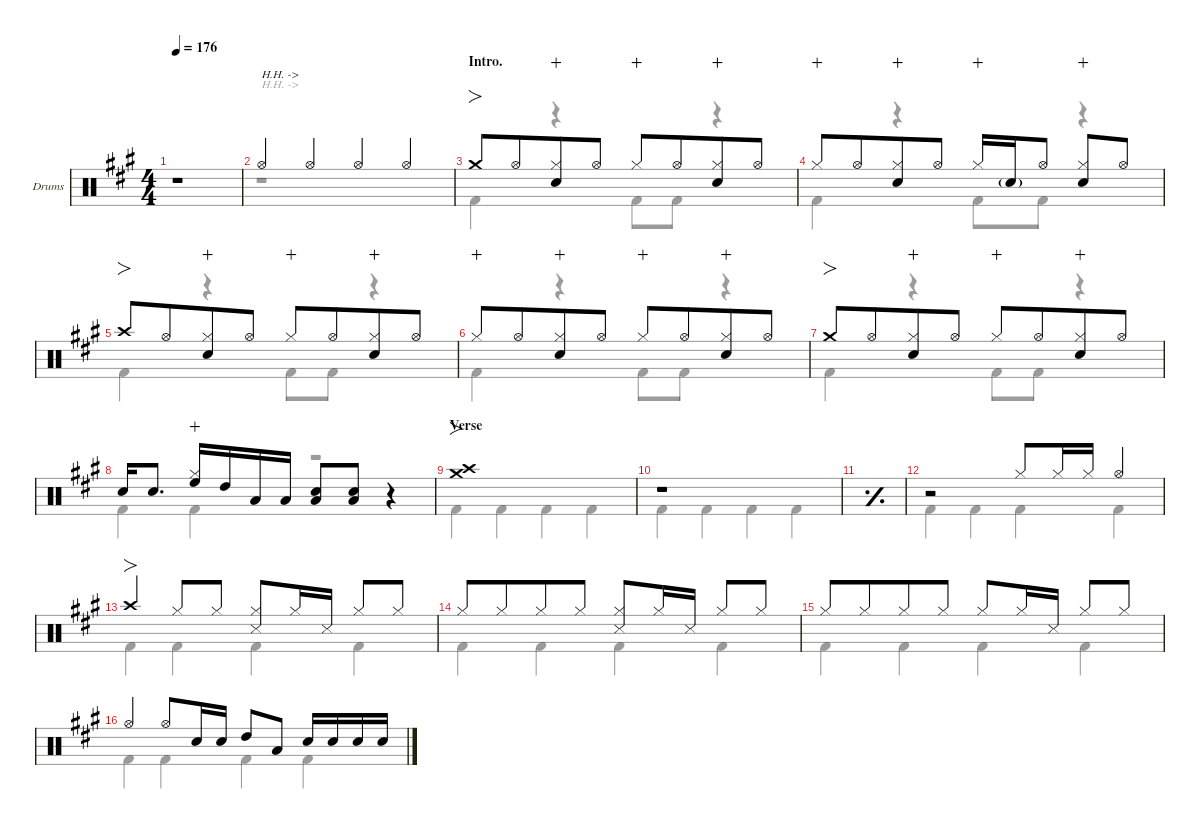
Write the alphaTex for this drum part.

\defaultSystemsLayout 4
\hideDynamics
\bracketExtendMode nobrackets
\firstSystemTrackNameOrientation horizontal
\track ("Drums" "Drums") {defaultSystemsLayout 4 instrument percussion}
\staff {score}
\articulation defaults
\voice
\ts (4 4)
\beaming (8 4 4)
\tempo 176
\clef neutral
\ks a
r.1{dy f beam Up} |
"Hi-Hat (open)"{acc forcenatural}.4{txt "H.H. ->" beam Up} "Hi-Hat (open)"{acc forcenatural}.4{beam Up} "Hi-Hat (open)"{acc forcenatural}.4{beam Up} "Hi-Hat (open)"{acc forcenatural}.4{beam Up} |
\section ("" "Intro.")
"Crash medium (hit)"{acc forcenatural}.8{fo beam Up} "Hi-Hat (open)"{acc forcenatural}.8{beam Up} ("Hi-Hat (closed)"{acc forcenatural} "Snare (hit) 2"{acc forcenatural}).8{wahc beam Up} "Hi-Hat (open)"{acc forcenatural}.8{beam Up} "Hi-Hat (closed)"{acc forcenatural}.8{dy mp wahc beam Up} "Hi-Hat (open)"{acc forcenatural}.8{dy f beam Up} ("Hi-Hat (closed)"{acc forcenatural} "Snare (hit) 2"{acc forcenatural}).8{wahc beam Up} "Hi-Hat (open)"{acc forcenatural}.8{beam Up} |
"Hi-Hat (closed)"{acc forcenatural}.8{dy mp wahc beam Up} "Hi-Hat (open)"{acc forcenatural}.8{dy f beam Up} ("Hi-Hat (closed)"{acc forcenatural} "Snare (hit) 2"{acc forcenatural}).8{wahc beam Up} "Hi-Hat (open)"{acc forcenatural}.8{beam Up} "Hi-Hat (closed)"{acc forcenatural}.16{dy mp wahc beam Up} "Snare (hit) 2"{g acc forcenatural}.16{dy mf beam Up} "Hi-Hat (open)"{acc forcenatural}.8{dy f beam Up beam split} ("Hi-Hat (closed)"{acc forcenatural} "Snare (hit) 2"{acc forcenatural}).8{wahc beam Up} "Hi-Hat (open)"{acc forcenatural}.8{beam Up} |
"Crash high (hit)"{acc forcenatural}.8{fo beam Up} "Hi-Hat (open)"{acc forcenatural}.8{beam Up} ("Hi-Hat (closed)"{acc forcenatural} "Snare (hit) 2"{acc forcenatural}).8{wahc beam Up} "Hi-Hat (open)"{acc forcenatural}.8{beam Up} "Hi-Hat (closed)"{acc forcenatural}.8{dy mp wahc beam Up} "Hi-Hat (open)"{acc forcenatural}.8{dy f beam Up} ("Hi-Hat (closed)"{acc forcenatural} "Snare (hit) 2"{acc forcenatural}).8{wahc beam Up} "Hi-Hat (open)"{acc forcenatural}.8{beam Up} |
"Hi-Hat (closed)"{acc forcenatural}.8{dy mp wahc beam Up} "Hi-Hat (open)"{acc forcenatural}.8{dy f beam Up} ("Hi-Hat (closed)"{acc forcenatural} "Snare (hit) 2"{acc forcenatural}).8{wahc beam Up} "Hi-Hat (open)"{acc forcenatural}.8{beam Up} "Hi-Hat (closed)"{acc forcenatural}.8{dy mp wahc beam Up} "Hi-Hat (open)"{acc forcenatural}.8{dy f beam Up} ("Hi-Hat (closed)"{acc forcenatural} "Snare (hit) 2"{acc forcenatural}).8{wahc beam Up} "Hi-Hat (open)"{acc forcenatural}.8{beam Up} |
"Crash medium (hit)"{acc forcenatural}.8{fo beam Up} "Hi-Hat (open)"{acc forcenatural}.8{beam Up} ("Hi-Hat (closed)"{acc forcenatural} "Snare (hit) 2"{acc forcenatural}).8{wahc beam Up} "Hi-Hat (open)"{acc forcenatural}.8{beam Up} "Hi-Hat (closed)"{acc forcenatural}.8{dy mp wahc beam Up} "Hi-Hat (open)"{acc forcenatural}.8{dy f beam Up} ("Hi-Hat (closed)"{acc forcenatural} "Snare (hit) 2"{acc forcenatural}).8{wahc beam Up} "Hi-Hat (open)"{acc forcenatural}.8{beam Up} |
"Snare (hit) 2"{acc forcenatural}.16{beam Up} "Snare (hit) 2"{acc forcenatural}.8{d beam Up beam split} ("Hi-Hat (closed)"{acc forcenatural} "High Floor Tom (hit)"{acc forcenatural}).16{wahc beam Up} "High Tom (hit)"{acc forcenatural}.16{beam Up} "Low Tom (hit)"{acc forcenatural}.16{beam Up} "Low Tom (hit)"{acc forcenatural}.16{beam Up} ("Snare (hit) 2"{acc forcenatural} "Low Tom (hit)"{acc forcenatural}).8{beam Up} ("Snare (hit) 2"{acc forcenatural} "Low Tom (hit)"{acc forcenatural}).8{beam Up} r.4{beam Up} |
\section ("" "Verse")
("Crash high (hit)"{acc forcenatural} "Crash medium (hit)"{acc forcenatural}).1{fo beam Up} |
r.1{beam Up} |
\simile simple
|
\simile none
r.2{beam Up} "Hi-Hat (closed)"{acc forcenatural}.8{beam Up} "Hi-Hat (closed)"{acc forcenatural}.16{dy mf beam Up} "Hi-Hat (closed)"{acc forcenatural}.16{beam Up} "Hi-Hat (open)"{acc forcenatural}.4{dy f beam Up} |
"Crash high (hit)"{acc forcenatural}.4{fo beam Up} "Hi-Hat (closed)"{acc forcenatural}.8{beam Up} "Hi-Hat (closed)"{acc forcenatural}.8{dy mf beam Up} ("Hi-Hat (closed)"{acc forcenatural} "Snare (side stick) 3"{acc forcenatural}).8{dy f beam Up} "Hi-Hat (closed)"{acc forcenatural}.16{dy mf beam Up} "Snare (side stick) 3"{acc forcenatural}.16{dy f beam Up beam split} "Hi-Hat (closed)"{acc forcenatural}.8{beam Up} "Hi-Hat (closed)"{acc forcenatural}.8{dy mf beam Up} |
"Hi-Hat (closed)"{acc forcenatural}.8{dy f beam Up} "Hi-Hat (closed)"{acc forcenatural}.8{dy mf beam Up} "Hi-Hat (closed)"{acc forcenatural}.8{dy f beam Up} "Hi-Hat (closed)"{acc forcenatural}.8{dy mf beam Up} ("Hi-Hat (closed)"{acc forcenatural} "Snare (side stick) 3"{acc forcenatural}).8{dy f beam Up} "Hi-Hat (closed)"{acc forcenatural}.16{dy mf beam Up} "Snare (side stick) 3"{acc forcenatural}.16{dy f beam Up beam split} "Hi-Hat (closed)"{acc forcenatural}.8{beam Up} "Hi-Hat (closed)"{acc forcenatural}.8{dy mf beam Up} |
"Hi-Hat (closed)"{acc forcenatural}.8{dy f beam Up} "Hi-Hat (closed)"{acc forcenatural}.8{dy mf beam Up} "Hi-Hat (closed)"{acc forcenatural}.8{dy f beam Up} "Hi-Hat (closed)"{acc forcenatural}.8{dy mf beam Up} "Hi-Hat (closed)"{acc forcenatural}.8{dy f beam Up} "Hi-Hat (closed)"{acc forcenatural}.16{dy mf beam Up} "Snare (side stick) 3"{acc forcenatural}.16{dy f beam Up beam split} "Hi-Hat (closed)"{acc forcenatural}.8{beam Up} "Hi-Hat (closed)"{acc forcenatural}.8{dy mf beam Up} |
"Hi-Hat (open)"{acc forcenatural}.4{dy f beam Up} "Hi-Hat (open)"{acc forcenatural}.8{beam Up} "Snare (hit) 2"{acc forcenatural}.16{beam Up} "Snare (hit) 2"{acc forcenatural}.16{dy mf beam Up} "High Tom (hit)"{acc forcenatural}.8{beam Up} "Low Tom (hit)"{acc forcenatural}.8{dy f beam Up beam split} "Snare (hit) 2"{acc forcenatural}.16{beam Up} "Snare (hit) 2"{acc forcenatural}.16{dy mf beam Up} "Snare (hit) 2"{acc forcenatural}.16{dy f beam Up} "Snare (hit) 2"{acc forcenatural}.16{dy mf beam Up}
\voice
\clef neutral
\ottava regular
\simile none
\ks a
r.1{dy f beam Down} |
r.1{txt "H.H. ->" beam Down} |
"Kick (hit) 2"{acc forcenatural}.4{beam Down} r.4{beam Down} "Kick (hit) 2"{acc forcenatural}.8{beam Down} "Kick (hit) 2"{acc forcenatural}.8{beam Down} r.4{beam Down} |
"Kick (hit) 2"{acc forcenatural}.4{beam Down} r.4{beam Down} "Kick (hit) 2"{acc forcenatural}.8{beam Down} "Kick (hit) 2"{acc forcenatural}.8{beam Down} r.4{beam Down} |
"Kick (hit) 2"{acc forcenatural}.4{beam Down} r.4{beam Down} "Kick (hit) 2"{acc forcenatural}.8{beam Down} "Kick (hit) 2"{acc forcenatural}.8{beam Down} r.4{beam Down} |
"Kick (hit) 2"{acc forcenatural}.4{beam Down} r.4{beam Down} "Kick (hit) 2"{acc forcenatural}.8{beam Down} "Kick (hit) 2"{acc forcenatural}.8{beam Down} r.4{beam Down} |
"Kick (hit) 2"{acc forcenatural}.4{beam Down} r.4{beam Down} "Kick (hit) 2"{acc forcenatural}.8{beam Down} "Kick (hit) 2"{acc forcenatural}.8{beam Down} r.4{beam Down} |
"Kick (hit) 2"{acc forcenatural}.4{beam Down} "Kick (hit) 2"{acc forcenatural}.4{beam Down} r.2{beam Down} |
"Kick (hit) 2"{acc forcenatural}.4{beam Down} "Kick (hit) 2"{acc forcenatural}.4{beam Down} "Kick (hit) 2"{acc forcenatural}.4{beam Down} "Kick (hit) 2"{acc forcenatural}.4{beam Down} |
"Kick (hit) 2"{acc forcenatural}.4{beam Down} "Kick (hit) 2"{acc forcenatural}.4{beam Down} "Kick (hit) 2"{acc forcenatural}.4{beam Down} "Kick (hit) 2"{acc forcenatural}.4{beam Down} |
\simile simple
|
\simile none "Kick (hit) 2"{acc forcenatural}.4{beam Down} "Kick (hit) 2"{acc forcenatural}.4{beam Down} "Kick (hit) 2"{acc forcenatural}.4{beam Down} "Kick (hit) 2"{acc forcenatural}.4{beam Down}
|
"Kick (hit) 2"{acc forcenatural}.4{beam Down} "Kick (hit) 2"{acc forcenatural}.4{beam Down} "Kick (hit) 2"{acc forcenatural}.4{beam Down} "Kick (hit) 2"{acc forcenatural}.4{beam Down} |
"Kick (hit) 2"{acc forcenatural}.4{beam Down} "Kick (hit) 2"{acc forcenatural}.4{beam Down} "Kick (hit) 2"{acc forcenatural}.4{beam Down} "Kick (hit) 2"{acc forcenatural}.4{beam Down} |
"Kick (hit) 2"{acc forcenatural}.4{beam Down} "Kick (hit) 2"{acc forcenatural}.4{beam Down} "Kick (hit) 2"{acc forcenatural}.4{beam Down} "Kick (hit) 2"{acc forcenatural}.4{beam Down} |
"Kick (hit) 2"{acc forcenatural}.4{beam Down} "Kick (hit) 2"{acc forcenatural}.4{beam Down} "Kick (hit) 2"{acc forcenatural}.4{beam Down} "Kick (hit) 2"{acc forcenatural}.4{beam Down}
